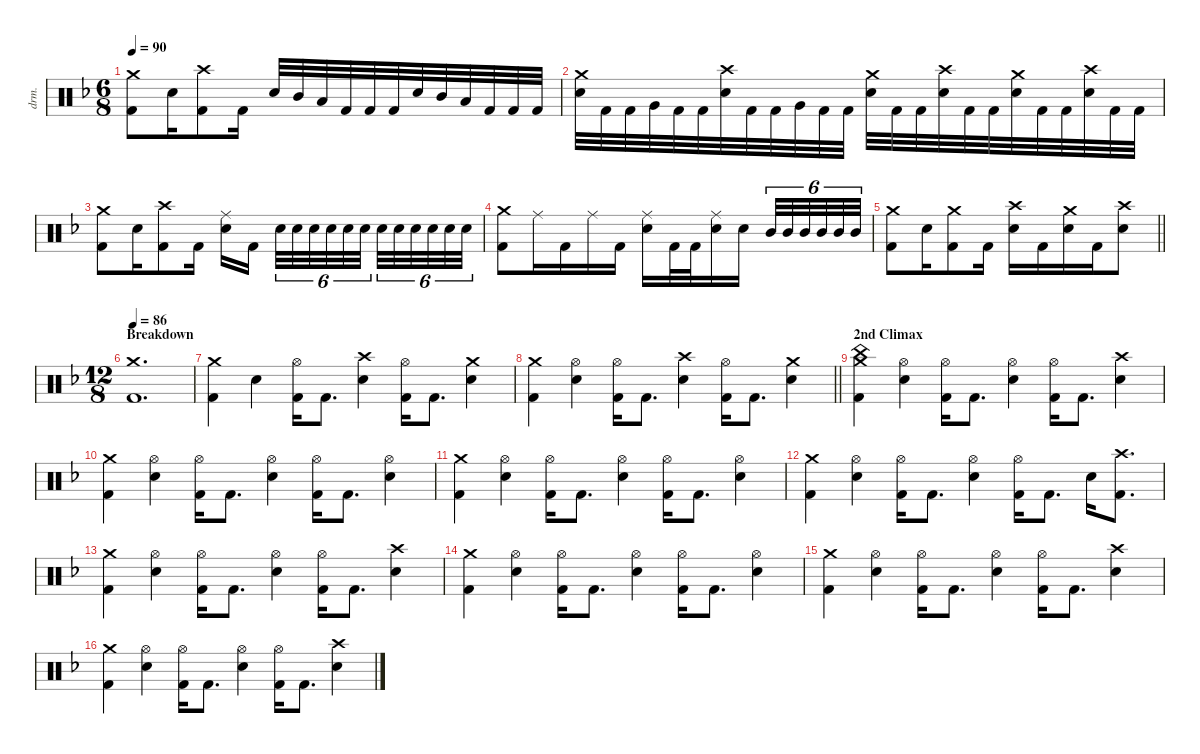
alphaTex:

\defaultSystemsLayout 4
\hideDynamics
\bracketExtendMode nobrackets
\otherSystemsTrackNameOrientation horizontal
\track ("Drums" "drm.") {instrument percussion}
\staff {score}
\articulation defaults
\ts (6 8)
\tempo 90
\clef neutral
\ks dminor
("Crash medium (hit)"{acc forcenatural} "Kick (hit) 2"{acc forcenatural}).8{dy f beam Down} "Snare (hit) 2"{acc forcenatural}.16{beam Down} ("Crash high (hit)"{acc forcenatural} "Kick (hit) 2"{acc forcenatural}).8{beam Down} "Kick (hit) 2"{acc forcenatural}.16{beam Down} "Snare (hit) 2"{acc forcenatural}.32{beam Up} "Mid Tom (hit)"{acc forcenatural}.32{beam Up} "Low Tom (hit)"{acc forcenatural}.32{beam Up} "Kick (hit) 2"{acc forcenatural}.32{beam Up} "Kick (hit) 2"{acc forcenatural}.32{beam Up} "Kick (hit) 2"{acc forcenatural}.32{beam Up} "Snare (hit) 2"{acc forcenatural}.32{beam Up} "Mid Tom (hit)"{acc forcenatural}.32{beam Up} "Low Tom (hit)"{acc forcenatural}.32{beam Up} "Kick (hit) 2"{acc forcenatural}.32{beam Up} "Kick (hit) 2"{acc forcenatural}.32{beam Up} "Kick (hit) 2"{acc forcenatural}.32{beam Up} |
("Crash medium (hit)"{acc forcenatural} "Snare (hit) 2"{acc forcenatural}).32{beam Down} "Kick (hit) 2"{acc forcenatural}.32{beam Down} "Kick (hit) 2"{acc forcenatural}.32{beam Down} "Very Low Tom (hit)"{acc forcenatural}.32{beam Down} "Kick (hit) 2"{acc forcenatural}.32{beam Down} "Kick (hit) 2"{acc forcenatural}.32{beam Down} ("Crash high (hit)"{acc forcenatural} "Snare (hit) 2"{acc forcenatural}).32{beam Down} "Kick (hit) 2"{acc forcenatural}.32{beam Down} "Kick (hit) 2"{acc forcenatural}.32{beam Down} "Very Low Tom (hit)"{acc forcenatural}.32{beam Down} "Kick (hit) 2"{acc forcenatural}.32{beam Down} "Kick (hit) 2"{acc forcenatural}.32{beam Down} ("Crash medium (hit)"{acc forcenatural} "Snare (hit) 2"{acc forcenatural}).32{beam Down} "Kick (hit) 2"{acc forcenatural}.32{beam Down} "Kick (hit) 2"{acc forcenatural}.32{beam Down} ("Crash high (hit)"{acc forcenatural} "Snare (hit) 2"{acc forcenatural}).32{beam Down} "Kick (hit) 2"{acc forcenatural}.32{beam Down} "Kick (hit) 2"{acc forcenatural}.32{beam Down} ("Crash medium (hit)"{acc forcenatural} "Snare (hit) 2"{acc forcenatural}).32{beam Down} "Kick (hit) 2"{acc forcenatural}.32{beam Down} "Kick (hit) 2"{acc forcenatural}.32{beam Down} ("Crash high (hit)"{acc forcenatural} "Snare (hit) 2"{acc forcenatural}).32{beam Down} "Kick (hit) 2"{acc forcenatural}.32{beam Down} "Kick (hit) 2"{acc forcenatural}.32{beam Down} |
("Crash medium (hit)"{acc forcenatural} "Kick (hit) 2"{acc forcenatural}).8{beam Down} "Snare (hit) 2"{acc forcenatural}.16{beam Down} ("Crash high (hit)"{acc forcenatural} "Kick (hit) 2"{acc forcenatural}).8{beam Down} "Kick (hit) 2"{acc forcenatural}.16{beam Down} ("Ride (middle)"{acc forcenatural} "Snare (hit) 2"{acc forcenatural}).16{beam Down} "Kick (hit) 2"{acc forcenatural}.16{beam Down} "Snare (hit) 2"{acc forcenatural}.32{tu (6 4) beam Down} "Snare (hit) 2"{acc forcenatural}.32{tu (6 4) beam Down} "Snare (hit) 2"{acc forcenatural}.32{tu (6 4) beam Down} "Snare (hit) 2"{acc forcenatural}.32{tu (6 4) beam Down} "Snare (hit) 2"{acc forcenatural}.32{tu (6 4) beam Down} "Snare (hit) 2"{acc forcenatural}.32{tu (6 4) beam Down} "Snare (hit) 2"{acc forcenatural}.32{tu (6 4) beam Down} "Snare (hit) 2"{acc forcenatural}.32{tu (6 4) beam Down} "Snare (hit) 2"{acc forcenatural}.32{tu (6 4) beam Down} "Snare (hit) 2"{acc forcenatural}.32{tu (6 4) beam Down} "Snare (hit) 2"{acc forcenatural}.32{tu (6 4) beam Down} "Snare (hit) 2"{acc forcenatural}.32{tu (6 4) beam Down} |
("Crash medium (hit)"{acc forcenatural} "Kick (hit) 2"{acc forcenatural}).8{beam Down} "Ride (middle)"{acc forcenatural}.16{beam Down} "Kick (hit) 2"{acc forcenatural}.16{beam Down} "Ride (middle)"{acc forcenatural}.16{beam Down} "Kick (hit) 2"{acc forcenatural}.16{beam Down} ("Ride (middle)"{acc forcenatural} "Snare (hit) 2"{acc forcenatural}).16{beam Down} "Kick (hit) 2"{acc forcenatural}.32{beam Down} "Kick (hit) 2"{acc forcenatural}.32{beam Down} ("Ride (middle)"{acc forcenatural} "Snare (hit) 2"{acc forcenatural}).16{beam Down} "Snare (hit) 2"{acc forcenatural}.16{beam Down} "Mid Tom (hit)"{acc forcenatural}.32{tu (6 4) beam Up} "Mid Tom (hit)"{acc forcenatural}.32{tu (6 4) beam Up} "Mid Tom (hit)"{acc forcenatural}.32{tu (6 4) beam Up} "Mid Tom (hit)"{acc forcenatural}.32{tu (6 4) beam Up} "Mid Tom (hit)"{acc forcenatural}.32{tu (6 4) beam Up} "Mid Tom (hit)"{acc forcenatural}.32{tu (6 4) beam Up} |
\barLineRight lightlight
("Crash medium (hit)"{acc forcenatural} "Kick (hit) 2"{acc forcenatural}).8{beam Down} "Snare (hit) 2"{acc forcenatural}.16{beam Down} ("Crash medium (hit)"{acc forcenatural} "Kick (hit) 2"{acc forcenatural}).8{beam Down} "Kick (hit) 2"{acc forcenatural}.16{beam Down} ("Crash high (hit)"{acc forcenatural} "Snare (hit) 2"{acc forcenatural}).16{beam Down} "Kick (hit) 2"{acc forcenatural}.16{beam Down} ("Crash medium (hit)"{acc forcenatural} "Snare (hit) 2"{acc forcenatural}).16{beam Down} "Kick (hit) 2"{acc forcenatural}.16{beam Down} ("Crash high (hit)"{acc forcenatural} "Snare (hit) 2"{acc forcenatural}).8{beam Down} |
\ts (12 8)
\beaming (8 3 3 3 3)
\section ("" "Breakdown")
\tempo 86
("Crash medium (hit)"{acc forcenatural} "Kick (hit) 2"{acc forcenatural}).1{d beam Down} |
("Crash medium (hit)"{acc forcenatural} "Kick (hit) 2"{acc forcenatural}).4{beam Down} "Snare (hit) 2"{acc forcenatural}.4{beam Down} ("Hi-Hat (open)"{acc forcenatural} "Kick (hit) 2"{acc forcenatural}).16{beam Down} "Kick (hit) 2"{acc forcenatural}.8{d beam Down} ("Crash high (hit)"{acc forcenatural} "Snare (hit) 2"{acc forcenatural}).4{beam Down} ("Hi-Hat (open)"{acc forcenatural} "Kick (hit) 2"{acc forcenatural}).16{beam Down} "Kick (hit) 2"{acc forcenatural}.8{d beam Down} ("Crash medium (hit)"{acc forcenatural} "Snare (hit) 2"{acc forcenatural}).4{beam Down} |
\barLineRight lightlight
("Crash medium (hit)"{acc forcenatural} "Kick (hit) 2"{acc forcenatural}).4{beam Down} ("Hi-Hat (open)"{acc forcenatural} "Snare (hit) 2"{acc forcenatural}).4{beam Down} ("Hi-Hat (open)"{acc forcenatural} "Kick (hit) 2"{acc forcenatural}).16{beam Down} "Kick (hit) 2"{acc forcenatural}.8{d beam Down} ("Crash high (hit)"{acc forcenatural} "Snare (hit) 2"{acc forcenatural}).4{beam Down} ("Hi-Hat (open)"{acc forcenatural} "Kick (hit) 2"{acc forcenatural}).16{beam Down} "Kick (hit) 2"{acc forcenatural}.8{d beam Down} ("Crash medium (hit)"{acc forcenatural} "Snare (hit) 2"{acc forcenatural}).4{beam Down} |
\section ("" "2nd Climax")
("China (hit)"{acc forcenatural} "Crash medium (hit)"{acc forcenatural} "Kick (hit) 2"{acc forcenatural}).4{beam Down} ("Hi-Hat (open)"{acc forcenatural} "Snare (hit) 2"{acc forcenatural}).4{beam Down} ("Hi-Hat (open)"{acc forcenatural} "Kick (hit) 2"{acc forcenatural}).16{beam Down} "Kick (hit) 2"{acc forcenatural}.8{d beam Down} ("Hi-Hat (open)"{acc forcenatural} "Snare (hit) 2"{acc forcenatural}).4{beam Down} ("Hi-Hat (open)"{acc forcenatural} "Kick (hit) 2"{acc forcenatural}).16{beam Down} "Kick (hit) 2"{acc forcenatural}.8{d beam Down} ("Crash high (hit)"{acc forcenatural} "Snare (hit) 2"{acc forcenatural}).4{beam Down} |
("Crash medium (hit)"{acc forcenatural} "Kick (hit) 2"{acc forcenatural}).4{beam Down} ("Hi-Hat (open)"{acc forcenatural} "Snare (hit) 2"{acc forcenatural}).4{beam Down} ("Hi-Hat (open)"{acc forcenatural} "Kick (hit) 2"{acc forcenatural}).16{beam Down} "Kick (hit) 2"{acc forcenatural}.8{d beam Down} ("Hi-Hat (open)"{acc forcenatural} "Snare (hit) 2"{acc forcenatural}).4{beam Down} ("Hi-Hat (open)"{acc forcenatural} "Kick (hit) 2"{acc forcenatural}).16{beam Down} "Kick (hit) 2"{acc forcenatural}.8{d beam Down} ("Hi-Hat (open)"{acc forcenatural} "Snare (hit) 2"{acc forcenatural}).4{beam Down} |
("Crash medium (hit)"{acc forcenatural} "Kick (hit) 2"{acc forcenatural}).4{beam Down} ("Hi-Hat (open)"{acc forcenatural} "Snare (hit) 2"{acc forcenatural}).4{beam Down} ("Hi-Hat (open)"{acc forcenatural} "Kick (hit) 2"{acc forcenatural}).16{beam Down} "Kick (hit) 2"{acc forcenatural}.8{d beam Down} ("Hi-Hat (open)"{acc forcenatural} "Snare (hit) 2"{acc forcenatural}).4{beam Down} ("Hi-Hat (open)"{acc forcenatural} "Kick (hit) 2"{acc forcenatural}).16{beam Down} "Kick (hit) 2"{acc forcenatural}.8{d beam Down} ("Hi-Hat (open)"{acc forcenatural} "Snare (hit) 2"{acc forcenatural}).4{beam Down} |
("Crash medium (hit)"{acc forcenatural} "Kick (hit) 2"{acc forcenatural}).4{beam Down} ("Hi-Hat (open)"{acc forcenatural} "Snare (hit) 2"{acc forcenatural}).4{beam Down} ("Hi-Hat (open)"{acc forcenatural} "Kick (hit) 2"{acc forcenatural}).16{beam Down} "Kick (hit) 2"{acc forcenatural}.8{d beam Down} ("Hi-Hat (open)"{acc forcenatural} "Snare (hit) 2"{acc forcenatural}).4{beam Down} ("Hi-Hat (open)"{acc forcenatural} "Kick (hit) 2"{acc forcenatural}).16{beam Down} "Kick (hit) 2"{acc forcenatural}.8{d beam Down} "Snare (hit) 2"{acc forcenatural}.16{beam Down} ("Crash high (hit)"{acc forcenatural} "Kick (hit) 2"{acc forcenatural}).8{d beam Down} |
("Crash medium (hit)"{acc forcenatural} "Kick (hit) 2"{acc forcenatural}).4{beam Down} ("Hi-Hat (open)"{acc forcenatural} "Snare (hit) 2"{acc forcenatural}).4{beam Down} ("Hi-Hat (open)"{acc forcenatural} "Kick (hit) 2"{acc forcenatural}).16{beam Down} "Kick (hit) 2"{acc forcenatural}.8{d beam Down} ("Hi-Hat (open)"{acc forcenatural} "Snare (hit) 2"{acc forcenatural}).4{beam Down} ("Hi-Hat (open)"{acc forcenatural} "Kick (hit) 2"{acc forcenatural}).16{beam Down} "Kick (hit) 2"{acc forcenatural}.8{d beam Down} ("Crash high (hit)"{acc forcenatural} "Snare (hit) 2"{acc forcenatural}).4{beam Down} |
("Crash medium (hit)"{acc forcenatural} "Kick (hit) 2"{acc forcenatural}).4{beam Down} ("Hi-Hat (open)"{acc forcenatural} "Snare (hit) 2"{acc forcenatural}).4{beam Down} ("Hi-Hat (open)"{acc forcenatural} "Kick (hit) 2"{acc forcenatural}).16{beam Down} "Kick (hit) 2"{acc forcenatural}.8{d beam Down} ("Hi-Hat (open)"{acc forcenatural} "Snare (hit) 2"{acc forcenatural}).4{beam Down} ("Hi-Hat (open)"{acc forcenatural} "Kick (hit) 2"{acc forcenatural}).16{beam Down} "Kick (hit) 2"{acc forcenatural}.8{d beam Down} ("Hi-Hat (open)"{acc forcenatural} "Snare (hit) 2"{acc forcenatural}).4{beam Down} |
("Crash medium (hit)"{acc forcenatural} "Kick (hit) 2"{acc forcenatural}).4{beam Down} ("Hi-Hat (open)"{acc forcenatural} "Snare (hit) 2"{acc forcenatural}).4{beam Down} ("Hi-Hat (open)"{acc forcenatural} "Kick (hit) 2"{acc forcenatural}).16{beam Down} "Kick (hit) 2"{acc forcenatural}.8{d beam Down} ("Hi-Hat (open)"{acc forcenatural} "Snare (hit) 2"{acc forcenatural}).4{beam Down} ("Hi-Hat (open)"{acc forcenatural} "Kick (hit) 2"{acc forcenatural}).16{beam Down} "Kick (hit) 2"{acc forcenatural}.8{d beam Down} ("Crash high (hit)"{acc forcenatural} "Snare (hit) 2"{acc forcenatural}).4{beam Down} |
("Crash medium (hit)"{acc forcenatural} "Kick (hit) 2"{acc forcenatural}).4{beam Down} ("Hi-Hat (open)"{acc forcenatural} "Snare (hit) 2"{acc forcenatural}).4{beam Down} ("Hi-Hat (open)"{acc forcenatural} "Kick (hit) 2"{acc forcenatural}).16{beam Down} "Kick (hit) 2"{acc forcenatural}.8{d beam Down} ("Hi-Hat (open)"{acc forcenatural} "Snare (hit) 2"{acc forcenatural}).4{beam Down} ("Hi-Hat (open)"{acc forcenatural} "Kick (hit) 2"{acc forcenatural}).16{beam Down} "Kick (hit) 2"{acc forcenatural}.8{d beam Down} ("Crash high (hit)"{acc forcenatural} "Snare (hit) 2"{acc forcenatural}).4{beam Down}
